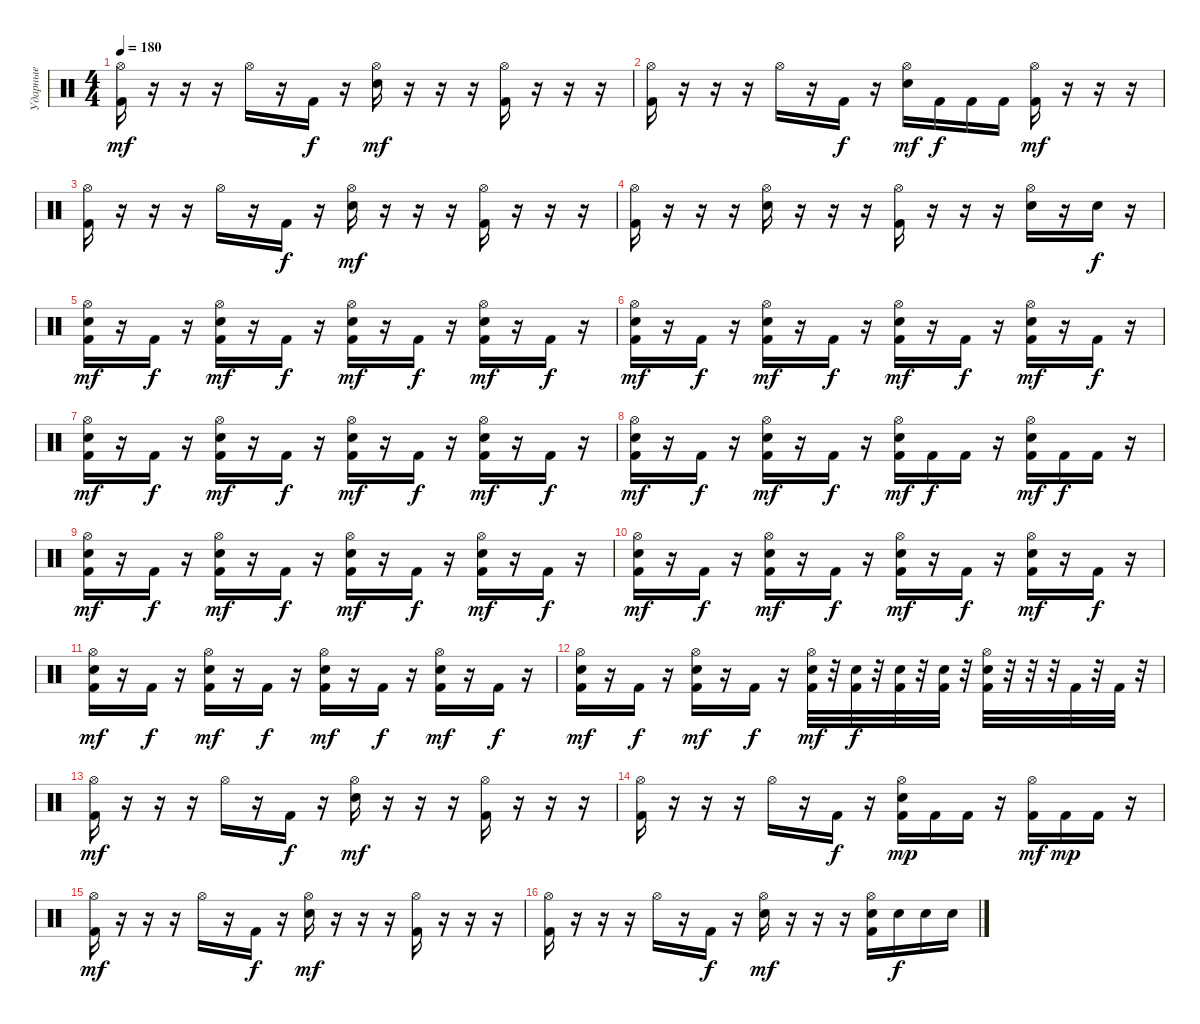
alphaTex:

\track ("Ударные" "Ударные") {instrument percussion}
\staff {score}
\articulation defaults
\ts (4 4)
\tempo 180
\clef neutral
\ks c
("Hi-Hat (open)" "Kick (hit) 2").16{dy mf} r.16 r.16 r.16 "Hi-Hat (open)".16 r.16 "Kick (hit) 2".16{dy f} r.16 ("Hi-Hat (open)" "Snare (hit) 2").16{dy mf} r.16 r.16 r.16 ("Hi-Hat (open)" "Kick (hit) 2").16 r.16 r.16 r.16 |
("Hi-Hat (open)" "Kick (hit) 2").16 r.16 r.16 r.16 "Hi-Hat (open)".16 r.16 "Kick (hit) 2".16{dy f} r.16 ("Hi-Hat (open)" "Snare (hit) 2").16{dy mf} "Kick (hit) 2".16{dy f} "Kick (hit) 2".16 "Kick (hit) 2".16 ("Hi-Hat (open)" "Kick (hit) 2").16{dy mf} r.16 r.16 r.16 |
("Hi-Hat (open)" "Kick (hit) 2").16 r.16 r.16 r.16 "Hi-Hat (open)".16 r.16 "Kick (hit) 2".16{dy f} r.16 ("Hi-Hat (open)" "Snare (hit) 2").16{dy mf} r.16 r.16 r.16 ("Hi-Hat (open)" "Kick (hit) 2").16 r.16 r.16 r.16 |
("Hi-Hat (open)" "Kick (hit) 2").16 r.16 r.16 r.16 ("Hi-Hat (open)" "Snare (hit) 2").16 r.16 r.16 r.16 ("Hi-Hat (open)" "Kick (hit) 2").16 r.16 r.16 r.16 ("Hi-Hat (open)" "Snare (hit) 2").16 r.16 "Snare (hit) 2".16{dy f} r.16 |
("Hi-Hat (open)" "Snare (hit) 2" "Kick (hit) 2").16{dy mf} r.16 "Kick (hit) 2".16{dy f} r.16 ("Hi-Hat (open)" "Snare (hit) 2" "Kick (hit) 2").16{dy mf} r.16 "Kick (hit) 2".16{dy f} r.16 ("Hi-Hat (open)" "Snare (hit) 2" "Kick (hit) 2").16{dy mf} r.16 "Kick (hit) 2".16{dy f} r.16 ("Hi-Hat (open)" "Snare (hit) 2" "Kick (hit) 2").16{dy mf} r.16 "Kick (hit) 2".16{dy f} r.16 |
("Hi-Hat (open)" "Snare (hit) 2" "Kick (hit) 2").16{dy mf} r.16 "Kick (hit) 2".16{dy f} r.16 ("Hi-Hat (open)" "Snare (hit) 2" "Kick (hit) 2").16{dy mf} r.16 "Kick (hit) 2".16{dy f} r.16 ("Hi-Hat (open)" "Snare (hit) 2" "Kick (hit) 2").16{dy mf} r.16 "Kick (hit) 2".16{dy f} r.16 ("Hi-Hat (open)" "Snare (hit) 2" "Kick (hit) 2").16{dy mf} r.16 "Kick (hit) 2".16{dy f} r.16 |
("Hi-Hat (open)" "Snare (hit) 2" "Kick (hit) 2").16{dy mf} r.16 "Kick (hit) 2".16{dy f} r.16 ("Hi-Hat (open)" "Snare (hit) 2" "Kick (hit) 2").16{dy mf} r.16 "Kick (hit) 2".16{dy f} r.16 ("Hi-Hat (open)" "Snare (hit) 2" "Kick (hit) 2").16{dy mf} r.16 "Kick (hit) 2".16{dy f} r.16 ("Hi-Hat (open)" "Snare (hit) 2" "Kick (hit) 2").16{dy mf} r.16 "Kick (hit) 2".16{dy f} r.16 |
("Hi-Hat (open)" "Snare (hit) 2" "Kick (hit) 2").16{dy mf} r.16 "Kick (hit) 2".16{dy f} r.16 ("Hi-Hat (open)" "Snare (hit) 2" "Kick (hit) 2").16{dy mf} r.16 "Kick (hit) 2".16{dy f} r.16 ("Hi-Hat (open)" "Snare (hit) 2" "Kick (hit) 2").16{dy mf} "Kick (hit) 2".16{dy f} "Kick (hit) 2".16 r.16 ("Hi-Hat (open)" "Snare (hit) 2" "Kick (hit) 2").16{dy mf} "Kick (hit) 2".16{dy f} "Kick (hit) 2".16 r.16 |
("Hi-Hat (open)" "Snare (hit) 2" "Kick (hit) 2").16{dy mf} r.16 "Kick (hit) 2".16{dy f} r.16 ("Hi-Hat (open)" "Snare (hit) 2" "Kick (hit) 2").16{dy mf} r.16 "Kick (hit) 2".16{dy f} r.16 ("Hi-Hat (open)" "Snare (hit) 2" "Kick (hit) 2").16{dy mf} r.16 "Kick (hit) 2".16{dy f} r.16 ("Hi-Hat (open)" "Snare (hit) 2" "Kick (hit) 2").16{dy mf} r.16 "Kick (hit) 2".16{dy f} r.16 |
("Hi-Hat (open)" "Snare (hit) 2" "Kick (hit) 2").16{dy mf} r.16 "Kick (hit) 2".16{dy f} r.16 ("Hi-Hat (open)" "Snare (hit) 2" "Kick (hit) 2").16{dy mf} r.16 "Kick (hit) 2".16{dy f} r.16 ("Hi-Hat (open)" "Snare (hit) 2" "Kick (hit) 2").16{dy mf} r.16 "Kick (hit) 2".16{dy f} r.16 ("Hi-Hat (open)" "Snare (hit) 2" "Kick (hit) 2").16{dy mf} r.16 "Kick (hit) 2".16{dy f} r.16 |
("Hi-Hat (open)" "Snare (hit) 2" "Kick (hit) 2").16{dy mf} r.16 "Kick (hit) 2".16{dy f} r.16 ("Hi-Hat (open)" "Snare (hit) 2" "Kick (hit) 2").16{dy mf} r.16 "Kick (hit) 2".16{dy f} r.16 ("Hi-Hat (open)" "Snare (hit) 2" "Kick (hit) 2").16{dy mf} r.16 "Kick (hit) 2".16{dy f} r.16 ("Hi-Hat (open)" "Snare (hit) 2" "Kick (hit) 2").16{dy mf} r.16 "Kick (hit) 2".16{dy f} r.16 |
("Hi-Hat (open)" "Snare (hit) 2" "Kick (hit) 2").16{dy mf} r.16 "Kick (hit) 2".16{dy f} r.16 ("Hi-Hat (open)" "Snare (hit) 2" "Kick (hit) 2").16{dy mf} r.16 "Kick (hit) 2".16{dy f} r.16 ("Hi-Hat (open)" "Snare (hit) 2" "Kick (hit) 2").32{dy mf} r.32 ("Snare (hit) 2" "Kick (hit) 2").32{dy f} r.32 ("Snare (hit) 2" "Kick (hit) 2").32 r.32 ("Snare (hit) 2" "Kick (hit) 2").32 r.32 ("Hi-Hat (open)" "Snare (hit) 2" "Kick (hit) 2").32 r.32 r.32 r.32 "Kick (hit) 2".32 r.32 "Kick (hit) 2".32 r.32 |
("Hi-Hat (open)" "Kick (hit) 2").16{dy mf} r.16 r.16 r.16 "Hi-Hat (open)".16 r.16 "Kick (hit) 2".16{dy f} r.16 ("Hi-Hat (open)" "Snare (hit) 2").16{dy mf} r.16 r.16 r.16 ("Hi-Hat (open)" "Kick (hit) 2").16 r.16 r.16 r.16 |
("Hi-Hat (open)" "Kick (hit) 2").16 r.16 r.16 r.16 "Hi-Hat (open)".16 r.16 "Kick (hit) 2".16{dy f} r.16 ("Hi-Hat (open)" "Snare (hit) 2" "Kick (hit) 2").16{dy mp} "Kick (hit) 2".16 "Kick (hit) 2".16 r.16 ("Hi-Hat (open)" "Kick (hit) 2").16{dy mf} "Kick (hit) 2".16{dy mp} "Kick (hit) 2".16 r.16 |
("Hi-Hat (open)" "Kick (hit) 2").16{dy mf} r.16 r.16 r.16 "Hi-Hat (open)".16 r.16 "Kick (hit) 2".16{dy f} r.16 ("Hi-Hat (open)" "Snare (hit) 2").16{dy mf} r.16 r.16 r.16 ("Hi-Hat (open)" "Kick (hit) 2").16 r.16 r.16 r.16 |
("Hi-Hat (open)" "Kick (hit) 2").16 r.16 r.16 r.16 "Hi-Hat (open)".16 r.16 "Kick (hit) 2".16{dy f} r.16 ("Hi-Hat (open)" "Snare (hit) 2").16{dy mf} r.16 r.16 r.16 ("Hi-Hat (open)" "Snare (hit) 2" "Kick (hit) 2").16 "Snare (hit) 2".16{dy f} "Snare (hit) 2".16 "Snare (hit) 2".16
